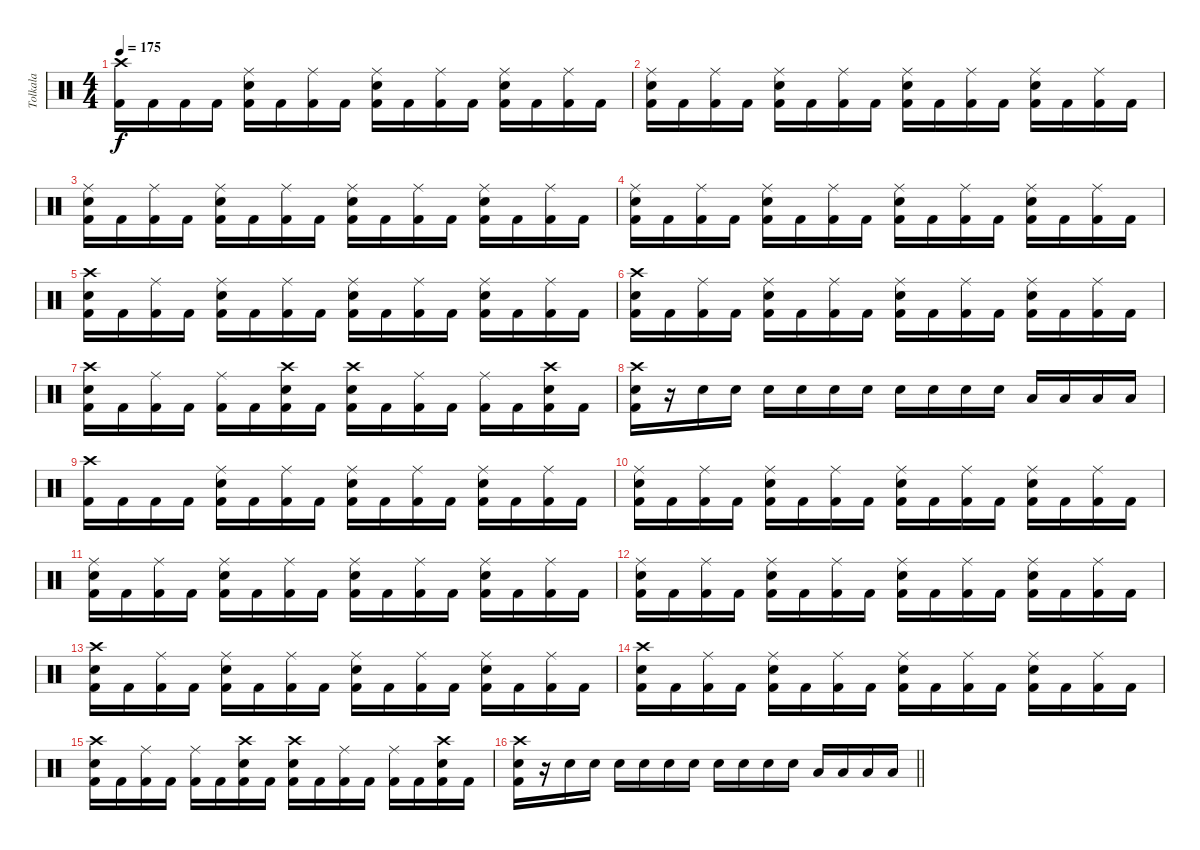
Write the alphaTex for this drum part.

\track ("Tolkala" "Tolkala") {instrument percussion}
\staff {score}
\articulation defaults
\ts (4 4)
\tempo 175
\clef neutral
\ks c
("Crash high (hit)" "Kick (hit) 2").16{dy f} "Kick (hit) 2".16 "Kick (hit) 2".16 "Kick (hit) 2".16 ("Ride (middle)" "Electric Snare (hit)" "Kick (hit) 2").16 "Kick (hit) 2".16 ("Ride (middle)" "Kick (hit) 2").16 "Kick (hit) 2".16 ("Ride (middle)" "Electric Snare (hit)" "Kick (hit) 2").16 "Kick (hit) 2".16 ("Ride (middle)" "Kick (hit) 2").16 "Kick (hit) 2".16 ("Ride (middle)" "Electric Snare (hit)" "Kick (hit) 2").16 "Kick (hit) 2".16 ("Ride (middle)" "Kick (hit) 2").16 "Kick (hit) 2".16 |
("Ride (middle)" "Electric Snare (hit)" "Kick (hit) 2").16 "Kick (hit) 2".16 ("Ride (middle)" "Kick (hit) 2").16 "Kick (hit) 2".16 ("Ride (middle)" "Electric Snare (hit)" "Kick (hit) 2").16 "Kick (hit) 2".16 ("Ride (middle)" "Kick (hit) 2").16 "Kick (hit) 2".16 ("Ride (middle)" "Electric Snare (hit)" "Kick (hit) 2").16 "Kick (hit) 2".16 ("Ride (middle)" "Kick (hit) 2").16 "Kick (hit) 2".16 ("Ride (middle)" "Electric Snare (hit)" "Kick (hit) 2").16 "Kick (hit) 2".16 ("Ride (middle)" "Kick (hit) 2").16 "Kick (hit) 2".16 |
("Ride (middle)" "Electric Snare (hit)" "Kick (hit) 2").16 "Kick (hit) 2".16 ("Ride (middle)" "Kick (hit) 2").16 "Kick (hit) 2".16 ("Ride (middle)" "Electric Snare (hit)" "Kick (hit) 2").16 "Kick (hit) 2".16 ("Ride (middle)" "Kick (hit) 2").16 "Kick (hit) 2".16 ("Ride (middle)" "Electric Snare (hit)" "Kick (hit) 2").16 "Kick (hit) 2".16 ("Ride (middle)" "Kick (hit) 2").16 "Kick (hit) 2".16 ("Ride (middle)" "Electric Snare (hit)" "Kick (hit) 2").16 "Kick (hit) 2".16 ("Ride (middle)" "Kick (hit) 2").16 "Kick (hit) 2".16 |
("Ride (middle)" "Electric Snare (hit)" "Kick (hit) 2").16 "Kick (hit) 2".16 ("Ride (middle)" "Kick (hit) 2").16 "Kick (hit) 2".16 ("Ride (middle)" "Electric Snare (hit)" "Kick (hit) 2").16 "Kick (hit) 2".16 ("Ride (middle)" "Kick (hit) 2").16 "Kick (hit) 2".16 ("Ride (middle)" "Electric Snare (hit)" "Kick (hit) 2").16 "Kick (hit) 2".16 ("Ride (middle)" "Kick (hit) 2").16 "Kick (hit) 2".16 ("Ride (middle)" "Electric Snare (hit)" "Kick (hit) 2").16 "Kick (hit) 2".16 ("Ride (middle)" "Kick (hit) 2").16 "Kick (hit) 2".16 |
("Crash high (hit)" "Electric Snare (hit)" "Kick (hit) 2").16 "Kick (hit) 2".16 ("Ride (middle)" "Kick (hit) 2").16 "Kick (hit) 2".16 ("Ride (middle)" "Electric Snare (hit)" "Kick (hit) 2").16 "Kick (hit) 2".16 ("Ride (middle)" "Kick (hit) 2").16 "Kick (hit) 2".16 ("Ride (middle)" "Electric Snare (hit)" "Kick (hit) 2").16 "Kick (hit) 2".16 ("Ride (middle)" "Kick (hit) 2").16 "Kick (hit) 2".16 ("Ride (middle)" "Electric Snare (hit)" "Kick (hit) 2").16 "Kick (hit) 2".16 ("Ride (middle)" "Kick (hit) 2").16 "Kick (hit) 2".16 |
("Crash high (hit)" "Electric Snare (hit)" "Kick (hit) 2").16 "Kick (hit) 2".16 ("Ride (middle)" "Kick (hit) 2").16 "Kick (hit) 2".16 ("Ride (middle)" "Electric Snare (hit)" "Kick (hit) 2").16 "Kick (hit) 2".16 ("Ride (middle)" "Kick (hit) 2").16 "Kick (hit) 2".16 ("Ride (middle)" "Electric Snare (hit)" "Kick (hit) 2").16 "Kick (hit) 2".16 ("Ride (middle)" "Kick (hit) 2").16 "Kick (hit) 2".16 ("Ride (middle)" "Electric Snare (hit)" "Kick (hit) 2").16 "Kick (hit) 2".16 ("Ride (middle)" "Kick (hit) 2").16 "Kick (hit) 2".16 |
("Crash high (hit)" "Electric Snare (hit)" "Kick (hit) 2").16 "Kick (hit) 2".16 ("Ride (middle)" "Kick (hit) 2").16 "Kick (hit) 2".16 ("Ride (middle)" "Kick (hit) 2").16 "Kick (hit) 2".16 ("Crash high (hit)" "Electric Snare (hit)" "Kick (hit) 2").16 "Kick (hit) 2".16 ("Crash high (hit)" "Electric Snare (hit)" "Kick (hit) 2").16 "Kick (hit) 2".16 ("Ride (middle)" "Kick (hit) 2").16 "Kick (hit) 2".16 ("Ride (middle)" "Kick (hit) 2").16 "Kick (hit) 2".16 ("Crash high (hit)" "Electric Snare (hit)" "Kick (hit) 2").16 "Kick (hit) 2".16 |
("Crash high (hit)" "Electric Snare (hit)" "Kick (hit) 2").16 r.16 "Electric Snare (hit)".16 "Electric Snare (hit)".16 "Electric Snare (hit)".16 "Electric Snare (hit)".16 "Electric Snare (hit)".16 "Electric Snare (hit)".16 "Electric Snare (hit)".16 "Electric Snare (hit)".16 "Electric Snare (hit)".16 "Electric Snare (hit)".16 "Low Tom (hit)".16 "Low Tom (hit)".16 "Low Tom (hit)".16 "Low Tom (hit)".16 |
("Crash high (hit)" "Kick (hit) 2").16 "Kick (hit) 2".16 "Kick (hit) 2".16 "Kick (hit) 2".16 ("Ride (middle)" "Electric Snare (hit)" "Kick (hit) 2").16 "Kick (hit) 2".16 ("Ride (middle)" "Kick (hit) 2").16 "Kick (hit) 2".16 ("Ride (middle)" "Electric Snare (hit)" "Kick (hit) 2").16 "Kick (hit) 2".16 ("Ride (middle)" "Kick (hit) 2").16 "Kick (hit) 2".16 ("Ride (middle)" "Electric Snare (hit)" "Kick (hit) 2").16 "Kick (hit) 2".16 ("Ride (middle)" "Kick (hit) 2").16 "Kick (hit) 2".16 |
("Ride (middle)" "Electric Snare (hit)" "Kick (hit) 2").16 "Kick (hit) 2".16 ("Ride (middle)" "Kick (hit) 2").16 "Kick (hit) 2".16 ("Ride (middle)" "Electric Snare (hit)" "Kick (hit) 2").16 "Kick (hit) 2".16 ("Ride (middle)" "Kick (hit) 2").16 "Kick (hit) 2".16 ("Ride (middle)" "Electric Snare (hit)" "Kick (hit) 2").16 "Kick (hit) 2".16 ("Ride (middle)" "Kick (hit) 2").16 "Kick (hit) 2".16 ("Ride (middle)" "Electric Snare (hit)" "Kick (hit) 2").16 "Kick (hit) 2".16 ("Ride (middle)" "Kick (hit) 2").16 "Kick (hit) 2".16 |
("Ride (middle)" "Electric Snare (hit)" "Kick (hit) 2").16 "Kick (hit) 2".16 ("Ride (middle)" "Kick (hit) 2").16 "Kick (hit) 2".16 ("Ride (middle)" "Electric Snare (hit)" "Kick (hit) 2").16 "Kick (hit) 2".16 ("Ride (middle)" "Kick (hit) 2").16 "Kick (hit) 2".16 ("Ride (middle)" "Electric Snare (hit)" "Kick (hit) 2").16 "Kick (hit) 2".16 ("Ride (middle)" "Kick (hit) 2").16 "Kick (hit) 2".16 ("Ride (middle)" "Electric Snare (hit)" "Kick (hit) 2").16 "Kick (hit) 2".16 ("Ride (middle)" "Kick (hit) 2").16 "Kick (hit) 2".16 |
("Ride (middle)" "Electric Snare (hit)" "Kick (hit) 2").16 "Kick (hit) 2".16 ("Ride (middle)" "Kick (hit) 2").16 "Kick (hit) 2".16 ("Ride (middle)" "Electric Snare (hit)" "Kick (hit) 2").16 "Kick (hit) 2".16 ("Ride (middle)" "Kick (hit) 2").16 "Kick (hit) 2".16 ("Ride (middle)" "Electric Snare (hit)" "Kick (hit) 2").16 "Kick (hit) 2".16 ("Ride (middle)" "Kick (hit) 2").16 "Kick (hit) 2".16 ("Ride (middle)" "Electric Snare (hit)" "Kick (hit) 2").16 "Kick (hit) 2".16 ("Ride (middle)" "Kick (hit) 2").16 "Kick (hit) 2".16 |
("Crash high (hit)" "Electric Snare (hit)" "Kick (hit) 2").16 "Kick (hit) 2".16 ("Ride (middle)" "Kick (hit) 2").16 "Kick (hit) 2".16 ("Ride (middle)" "Electric Snare (hit)" "Kick (hit) 2").16 "Kick (hit) 2".16 ("Ride (middle)" "Kick (hit) 2").16 "Kick (hit) 2".16 ("Ride (middle)" "Electric Snare (hit)" "Kick (hit) 2").16 "Kick (hit) 2".16 ("Ride (middle)" "Kick (hit) 2").16 "Kick (hit) 2".16 ("Ride (middle)" "Electric Snare (hit)" "Kick (hit) 2").16 "Kick (hit) 2".16 ("Ride (middle)" "Kick (hit) 2").16 "Kick (hit) 2".16 |
("Crash high (hit)" "Electric Snare (hit)" "Kick (hit) 2").16 "Kick (hit) 2".16 ("Ride (middle)" "Kick (hit) 2").16 "Kick (hit) 2".16 ("Ride (middle)" "Electric Snare (hit)" "Kick (hit) 2").16 "Kick (hit) 2".16 ("Ride (middle)" "Kick (hit) 2").16 "Kick (hit) 2".16 ("Ride (middle)" "Electric Snare (hit)" "Kick (hit) 2").16 "Kick (hit) 2".16 ("Ride (middle)" "Kick (hit) 2").16 "Kick (hit) 2".16 ("Ride (middle)" "Electric Snare (hit)" "Kick (hit) 2").16 "Kick (hit) 2".16 ("Ride (middle)" "Kick (hit) 2").16 "Kick (hit) 2".16 |
("Crash high (hit)" "Electric Snare (hit)" "Kick (hit) 2").16 "Kick (hit) 2".16 ("Ride (middle)" "Kick (hit) 2").16 "Kick (hit) 2".16 ("Ride (middle)" "Kick (hit) 2").16 "Kick (hit) 2".16 ("Crash high (hit)" "Electric Snare (hit)" "Kick (hit) 2").16 "Kick (hit) 2".16 ("Crash high (hit)" "Electric Snare (hit)" "Kick (hit) 2").16 "Kick (hit) 2".16 ("Ride (middle)" "Kick (hit) 2").16 "Kick (hit) 2".16 ("Ride (middle)" "Kick (hit) 2").16 "Kick (hit) 2".16 ("Crash high (hit)" "Electric Snare (hit)" "Kick (hit) 2").16 "Kick (hit) 2".16 |
\barLineRight lightlight
("Crash high (hit)" "Electric Snare (hit)" "Kick (hit) 2").16 r.16 "Electric Snare (hit)".16 "Electric Snare (hit)".16 "Electric Snare (hit)".16 "Electric Snare (hit)".16 "Electric Snare (hit)".16 "Electric Snare (hit)".16 "Electric Snare (hit)".16 "Electric Snare (hit)".16 "Electric Snare (hit)".16 "Electric Snare (hit)".16 "Low Tom (hit)".16 "Low Tom (hit)".16 "Low Tom (hit)".16 "Low Tom (hit)".16
